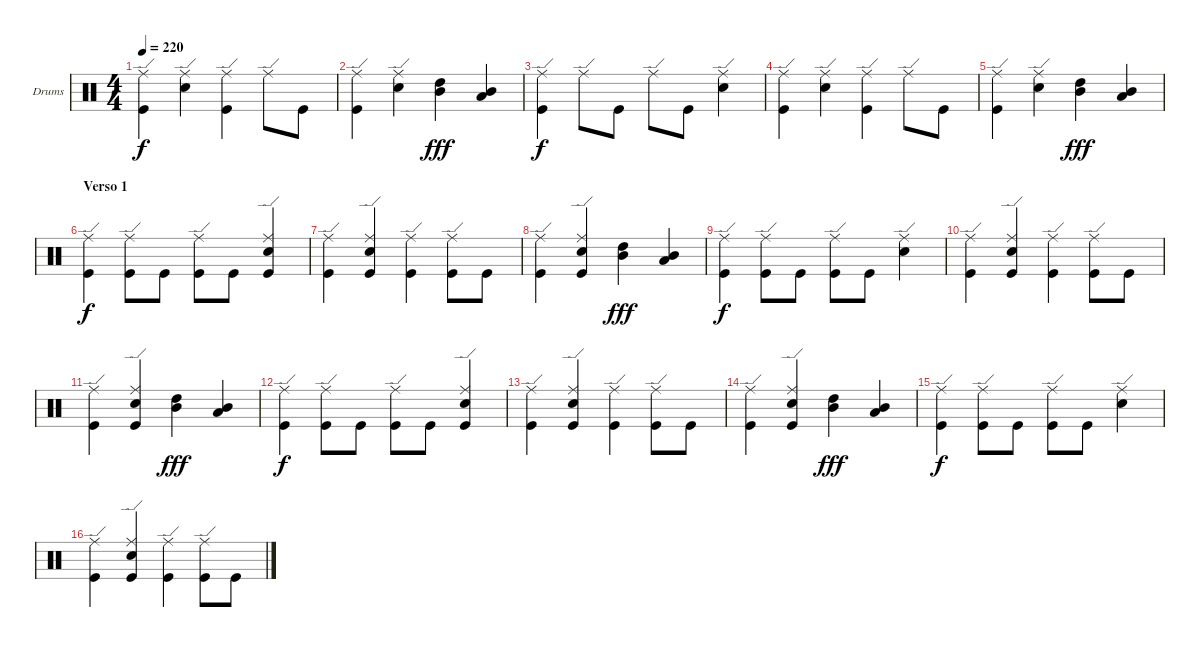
\defaultSystemsLayout 4
\bracketExtendMode groupsimilarinstruments
\firstSystemTrackNameOrientation horizontal
\otherSystemsTrackNameOrientation horizontal
\track ("Drumkit" "Drums") {instrument percussion}
\staff {score}
\articulation defaults
\ts (4 4)
\tempo 220
\clef neutral
\ks c
("Kick (hit)" "Ride (edge)").4{dy f} ("Snare (hit) 2" "Ride (edge)").4 ("Kick (hit)" "Ride (edge)").4 "Ride (edge)".8 "Kick (hit)".8 |
("Kick (hit)" "Ride (edge)").4 ("Snare (hit) 2" "Ride (edge)").4 ("High Tom (hit)" "Mid Tom (hit)").4{dy fff} ("Low Tom (hit)" "Mid Tom (hit)").4 |
("Kick (hit)" "Ride (edge)").4{dy f} "Ride (edge)".8 "Kick (hit)".8 "Ride (edge)".8 "Kick (hit)".8 ("Snare (hit) 2" "Ride (edge)").4 |
("Kick (hit)" "Ride (edge)").4 ("Snare (hit) 2" "Ride (edge)").4 ("Kick (hit)" "Ride (edge)").4 "Ride (edge)".8 "Kick (hit)".8 |
("Kick (hit)" "Ride (edge)").4 ("Snare (hit) 2" "Ride (edge)").4 ("High Tom (hit)" "Mid Tom (hit)").4{dy fff} ("Low Tom (hit)" "Mid Tom (hit)").4 |
\section ("" "Verso 1")
("Kick (hit)" "Ride (edge)").4{dy f} ("Ride (edge)" "Kick (hit)").8 "Kick (hit)".8 ("Ride (edge)" "Kick (hit)").8 "Kick (hit)".8 ("Snare (hit) 2" "Ride (edge)" "Kick (hit)").4 |
("Kick (hit)" "Ride (edge)").4 ("Snare (hit) 2" "Ride (edge)" "Kick (hit)").4 ("Kick (hit)" "Ride (edge)").4 ("Ride (edge)" "Kick (hit)").8 "Kick (hit)".8 |
("Kick (hit)" "Ride (edge)").4 ("Snare (hit) 2" "Ride (edge)" "Kick (hit)").4 ("High Tom (hit)" "Mid Tom (hit)").4{dy fff} ("Low Tom (hit)" "Mid Tom (hit)").4 |
("Kick (hit)" "Ride (edge)").4{dy f} ("Ride (edge)" "Kick (hit)").8 "Kick (hit)".8 ("Ride (edge)" "Kick (hit)").8 "Kick (hit)".8 ("Snare (hit) 2" "Ride (edge)").4 |
("Kick (hit)" "Ride (edge)").4 ("Snare (hit) 2" "Ride (edge)" "Kick (hit)").4 ("Kick (hit)" "Ride (edge)").4 ("Ride (edge)" "Kick (hit)").8 "Kick (hit)".8 |
("Kick (hit)" "Ride (edge)").4 ("Snare (hit) 2" "Ride (edge)" "Kick (hit)").4 ("High Tom (hit)" "Mid Tom (hit)").4{dy fff} ("Low Tom (hit)" "Mid Tom (hit)").4 |
("Kick (hit)" "Ride (edge)").4{dy f} ("Ride (edge)" "Kick (hit)").8 "Kick (hit)".8 ("Ride (edge)" "Kick (hit)").8 "Kick (hit)".8 ("Snare (hit) 2" "Ride (edge)" "Kick (hit)").4 |
("Kick (hit)" "Ride (edge)").4 ("Snare (hit) 2" "Ride (edge)" "Kick (hit)").4 ("Kick (hit)" "Ride (edge)").4 ("Ride (edge)" "Kick (hit)").8 "Kick (hit)".8 |
("Kick (hit)" "Ride (edge)").4 ("Snare (hit) 2" "Ride (edge)" "Kick (hit)").4 ("High Tom (hit)" "Mid Tom (hit)").4{dy fff} ("Low Tom (hit)" "Mid Tom (hit)").4 |
("Kick (hit)" "Ride (edge)").4{dy f} ("Ride (edge)" "Kick (hit)").8 "Kick (hit)".8 ("Ride (edge)" "Kick (hit)").8 "Kick (hit)".8 ("Snare (hit) 2" "Ride (edge)").4 |
("Kick (hit)" "Ride (edge)").4 ("Snare (hit) 2" "Ride (edge)" "Kick (hit)").4 ("Kick (hit)" "Ride (edge)").4 ("Ride (edge)" "Kick (hit)").8 "Kick (hit)".8
